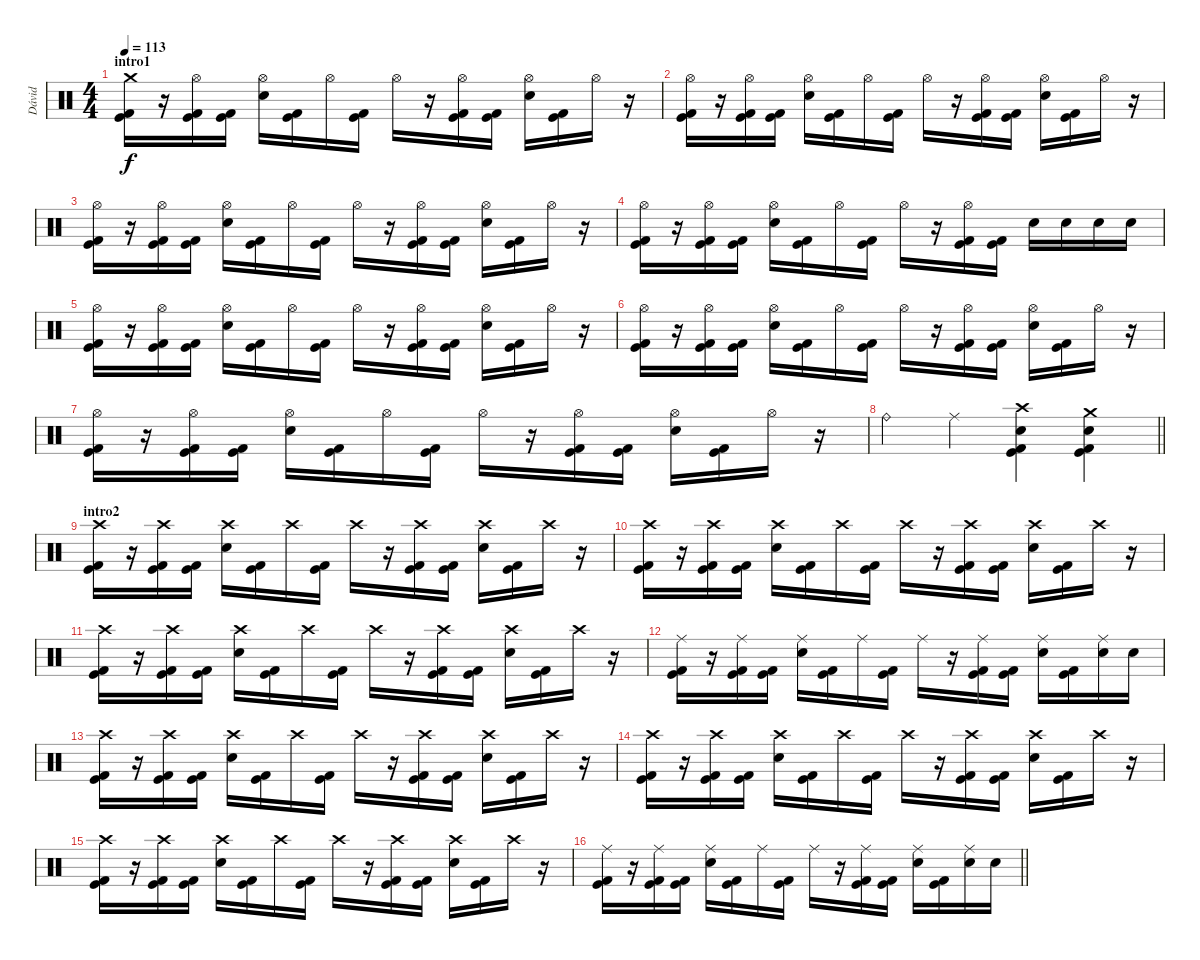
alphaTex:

\track ("Dávid" "Dávid") {instrument percussion}
\staff {score}
\articulation defaults
\ts (4 4)
\section ("" "intro1")
\tempo 113
\clef neutral
\ks c
("Crash medium (hit)" "Kick (hit)" "Kick (hit) 2").16{dy f} r.16 ("Hi-Hat (open)" "Kick (hit)" "Kick (hit) 2").16 ("Kick (hit)" "Kick (hit) 2").16 ("Hi-Hat (open)" "Snare (hit) 2").16 ("Kick (hit)" "Kick (hit) 2").16 "Hi-Hat (open)".16 ("Kick (hit)" "Kick (hit) 2").16 "Hi-Hat (open)".16 r.16 ("Hi-Hat (open)" "Kick (hit)" "Kick (hit) 2").16 ("Kick (hit) 2" "Kick (hit)").16 ("Hi-Hat (open)" "Snare (hit) 2").16 ("Kick (hit)" "Kick (hit) 2").16 "Hi-Hat (open)".16 r.16 |
("Hi-Hat (open)" "Kick (hit)" "Kick (hit) 2").16 r.16 ("Hi-Hat (open)" "Kick (hit)" "Kick (hit) 2").16 ("Kick (hit)" "Kick (hit) 2").16 ("Hi-Hat (open)" "Snare (hit) 2").16 ("Kick (hit)" "Kick (hit) 2").16 "Hi-Hat (open)".16 ("Kick (hit)" "Kick (hit) 2").16 "Hi-Hat (open)".16 r.16 ("Hi-Hat (open)" "Kick (hit)" "Kick (hit) 2").16 ("Kick (hit) 2" "Kick (hit)").16 ("Hi-Hat (open)" "Snare (hit) 2").16 ("Kick (hit)" "Kick (hit) 2").16 "Hi-Hat (open)".16 r.16 |
("Hi-Hat (open)" "Kick (hit)" "Kick (hit) 2").16 r.16 ("Hi-Hat (open)" "Kick (hit)" "Kick (hit) 2").16 ("Kick (hit)" "Kick (hit) 2").16 ("Hi-Hat (open)" "Snare (hit) 2").16 ("Kick (hit)" "Kick (hit) 2").16 "Hi-Hat (open)".16 ("Kick (hit)" "Kick (hit) 2").16 "Hi-Hat (open)".16 r.16 ("Hi-Hat (open)" "Kick (hit)" "Kick (hit) 2").16 ("Kick (hit) 2" "Kick (hit)").16 ("Hi-Hat (open)" "Snare (hit) 2").16 ("Kick (hit)" "Kick (hit) 2").16 "Hi-Hat (open)".16 r.16 |
("Hi-Hat (open)" "Kick (hit)" "Kick (hit) 2").16 r.16 ("Hi-Hat (open)" "Kick (hit)" "Kick (hit) 2").16 ("Kick (hit)" "Kick (hit) 2").16 ("Hi-Hat (open)" "Snare (hit) 2").16 ("Kick (hit)" "Kick (hit) 2").16 "Hi-Hat (open)".16 ("Kick (hit)" "Kick (hit) 2").16 "Hi-Hat (open)".16 r.16 ("Hi-Hat (open)" "Kick (hit)" "Kick (hit) 2").16 ("Kick (hit) 2" "Kick (hit)").16 "Snare (hit) 2".16 "Snare (hit) 2".16 "Snare (hit) 2".16 "Snare (hit) 2".16 |
("Hi-Hat (open)" "Kick (hit)" "Kick (hit) 2").16 r.16 ("Hi-Hat (open)" "Kick (hit)" "Kick (hit) 2").16 ("Kick (hit)" "Kick (hit) 2").16 ("Hi-Hat (open)" "Snare (hit) 2").16 ("Kick (hit)" "Kick (hit) 2").16 "Hi-Hat (open)".16 ("Kick (hit)" "Kick (hit) 2").16 "Hi-Hat (open)".16 r.16 ("Hi-Hat (open)" "Kick (hit)" "Kick (hit) 2").16 ("Kick (hit) 2" "Kick (hit)").16 ("Hi-Hat (open)" "Snare (hit) 2").16 ("Kick (hit)" "Kick (hit) 2").16 "Hi-Hat (open)".16 r.16 |
("Hi-Hat (open)" "Kick (hit)" "Kick (hit) 2").16 r.16 ("Hi-Hat (open)" "Kick (hit)" "Kick (hit) 2").16 ("Kick (hit)" "Kick (hit) 2").16 ("Hi-Hat (open)" "Snare (hit) 2").16 ("Kick (hit)" "Kick (hit) 2").16 "Hi-Hat (open)".16 ("Kick (hit)" "Kick (hit) 2").16 "Hi-Hat (open)".16 r.16 ("Hi-Hat (open)" "Kick (hit)" "Kick (hit) 2").16 ("Kick (hit) 2" "Kick (hit)").16 ("Hi-Hat (open)" "Snare (hit) 2").16 ("Kick (hit)" "Kick (hit) 2").16 "Hi-Hat (open)".16 r.16 |
("Hi-Hat (open)" "Kick (hit)" "Kick (hit) 2").16 r.16 ("Hi-Hat (open)" "Kick (hit)" "Kick (hit) 2").16 ("Kick (hit)" "Kick (hit) 2").16 ("Hi-Hat (open)" "Snare (hit) 2").16 ("Kick (hit)" "Kick (hit) 2").16 "Hi-Hat (open)".16 ("Kick (hit)" "Kick (hit) 2").16 "Hi-Hat (open)".16 r.16 ("Hi-Hat (open)" "Kick (hit)" "Kick (hit) 2").16 ("Kick (hit) 2" "Kick (hit)").16 ("Hi-Hat (open)" "Snare (hit) 2").16 ("Kick (hit)" "Kick (hit) 2").16 "Hi-Hat (open)".16 r.16 |
\barLineRight lightlight "Ride (bell)".4 "Ride (middle)".4
("Crash high (hit)" "Snare (hit) 2" "Kick (hit)" "Kick (hit) 2").4 ("Crash medium (hit)" "Snare (hit) 2" "Kick (hit) 2" "Kick (hit)").4 |
\section ("" "intro2")
("Crash high (hit)" "Kick (hit)" "Kick (hit) 2").16 r.16 ("Crash high (hit)" "Kick (hit)" "Kick (hit) 2").16 ("Kick (hit)" "Kick (hit) 2").16 ("Crash high (hit)" "Snare (hit) 2").16 ("Kick (hit)" "Kick (hit) 2").16 "Crash high (hit)".16 ("Kick (hit)" "Kick (hit) 2").16 "Crash high (hit)".16 r.16 ("Crash high (hit)" "Kick (hit)" "Kick (hit) 2").16 ("Kick (hit) 2" "Kick (hit)").16 ("Crash high (hit)" "Snare (hit) 2").16 ("Kick (hit)" "Kick (hit) 2").16 "Crash high (hit)".16 r.16 |
("Crash high (hit)" "Kick (hit)" "Kick (hit) 2").16 r.16 ("Crash high (hit)" "Kick (hit)" "Kick (hit) 2").16 ("Kick (hit)" "Kick (hit) 2").16 ("Crash high (hit)" "Snare (hit) 2").16 ("Kick (hit)" "Kick (hit) 2").16 "Crash high (hit)".16 ("Kick (hit)" "Kick (hit) 2").16 "Crash high (hit)".16 r.16 ("Crash high (hit)" "Kick (hit)" "Kick (hit) 2").16 ("Kick (hit) 2" "Kick (hit)").16 ("Crash high (hit)" "Snare (hit) 2").16 ("Kick (hit)" "Kick (hit) 2").16 "Crash high (hit)".16 r.16 |
("Crash high (hit)" "Kick (hit)" "Kick (hit) 2").16 r.16 ("Crash high (hit)" "Kick (hit)" "Kick (hit) 2").16 ("Kick (hit)" "Kick (hit) 2").16 ("Crash high (hit)" "Snare (hit) 2").16 ("Kick (hit)" "Kick (hit) 2").16 "Crash high (hit)".16 ("Kick (hit)" "Kick (hit) 2").16 "Crash high (hit)".16 r.16 ("Crash high (hit)" "Kick (hit)" "Kick (hit) 2").16 ("Kick (hit) 2" "Kick (hit)").16 ("Crash high (hit)" "Snare (hit) 2").16 ("Kick (hit)" "Kick (hit) 2").16 "Crash high (hit)".16 r.16 |
("Ride (middle)" "Kick (hit)" "Kick (hit) 2").16 r.16 ("Ride (middle)" "Kick (hit)" "Kick (hit) 2").16 ("Kick (hit)" "Kick (hit) 2").16 ("Ride (middle)" "Snare (hit) 2").16 ("Kick (hit)" "Kick (hit) 2").16 "Ride (middle)".16 ("Kick (hit)" "Kick (hit) 2").16 "Ride (middle)".16 r.16 ("Ride (middle)" "Kick (hit)" "Kick (hit) 2").16 ("Kick (hit) 2" "Kick (hit)").16 ("Ride (middle)" "Snare (hit) 2").16 ("Kick (hit)" "Kick (hit) 2").16 ("Ride (middle)" "Snare (hit) 2").16 "Snare (hit) 2".16 |
("Crash high (hit)" "Kick (hit)" "Kick (hit) 2").16 r.16 ("Crash high (hit)" "Kick (hit)" "Kick (hit) 2").16 ("Kick (hit)" "Kick (hit) 2").16 ("Crash high (hit)" "Snare (hit) 2").16 ("Kick (hit)" "Kick (hit) 2").16 "Crash high (hit)".16 ("Kick (hit)" "Kick (hit) 2").16 "Crash high (hit)".16 r.16 ("Crash high (hit)" "Kick (hit)" "Kick (hit) 2").16 ("Kick (hit) 2" "Kick (hit)").16 ("Crash high (hit)" "Snare (hit) 2").16 ("Kick (hit)" "Kick (hit) 2").16 "Crash high (hit)".16 r.16 |
("Crash high (hit)" "Kick (hit)" "Kick (hit) 2").16 r.16 ("Crash high (hit)" "Kick (hit)" "Kick (hit) 2").16 ("Kick (hit)" "Kick (hit) 2").16 ("Crash high (hit)" "Snare (hit) 2").16 ("Kick (hit)" "Kick (hit) 2").16 "Crash high (hit)".16 ("Kick (hit)" "Kick (hit) 2").16 "Crash high (hit)".16 r.16 ("Crash high (hit)" "Kick (hit)" "Kick (hit) 2").16 ("Kick (hit) 2" "Kick (hit)").16 ("Crash high (hit)" "Snare (hit) 2").16 ("Kick (hit)" "Kick (hit) 2").16 "Crash high (hit)".16 r.16 |
("Crash high (hit)" "Kick (hit)" "Kick (hit) 2").16 r.16 ("Crash high (hit)" "Kick (hit)" "Kick (hit) 2").16 ("Kick (hit)" "Kick (hit) 2").16 ("Crash high (hit)" "Snare (hit) 2").16 ("Kick (hit)" "Kick (hit) 2").16 "Crash high (hit)".16 ("Kick (hit)" "Kick (hit) 2").16 "Crash high (hit)".16 r.16 ("Crash high (hit)" "Kick (hit)" "Kick (hit) 2").16 ("Kick (hit) 2" "Kick (hit)").16 ("Crash high (hit)" "Snare (hit) 2").16 ("Kick (hit)" "Kick (hit) 2").16 "Crash high (hit)".16 r.16 |
\barLineRight lightlight
("Ride (middle)" "Kick (hit)" "Kick (hit) 2").16 r.16 ("Ride (middle)" "Kick (hit)" "Kick (hit) 2").16 ("Kick (hit)" "Kick (hit) 2").16 ("Ride (middle)" "Snare (hit) 2").16 ("Kick (hit)" "Kick (hit) 2").16 "Ride (middle)".16 ("Kick (hit)" "Kick (hit) 2").16 "Ride (middle)".16 r.16 ("Ride (middle)" "Kick (hit)" "Kick (hit) 2").16 ("Kick (hit) 2" "Kick (hit)").16 ("Ride (middle)" "Snare (hit) 2").16 ("Kick (hit)" "Kick (hit) 2").16 ("Ride (middle)" "Snare (hit) 2").16 "Snare (hit) 2".16
